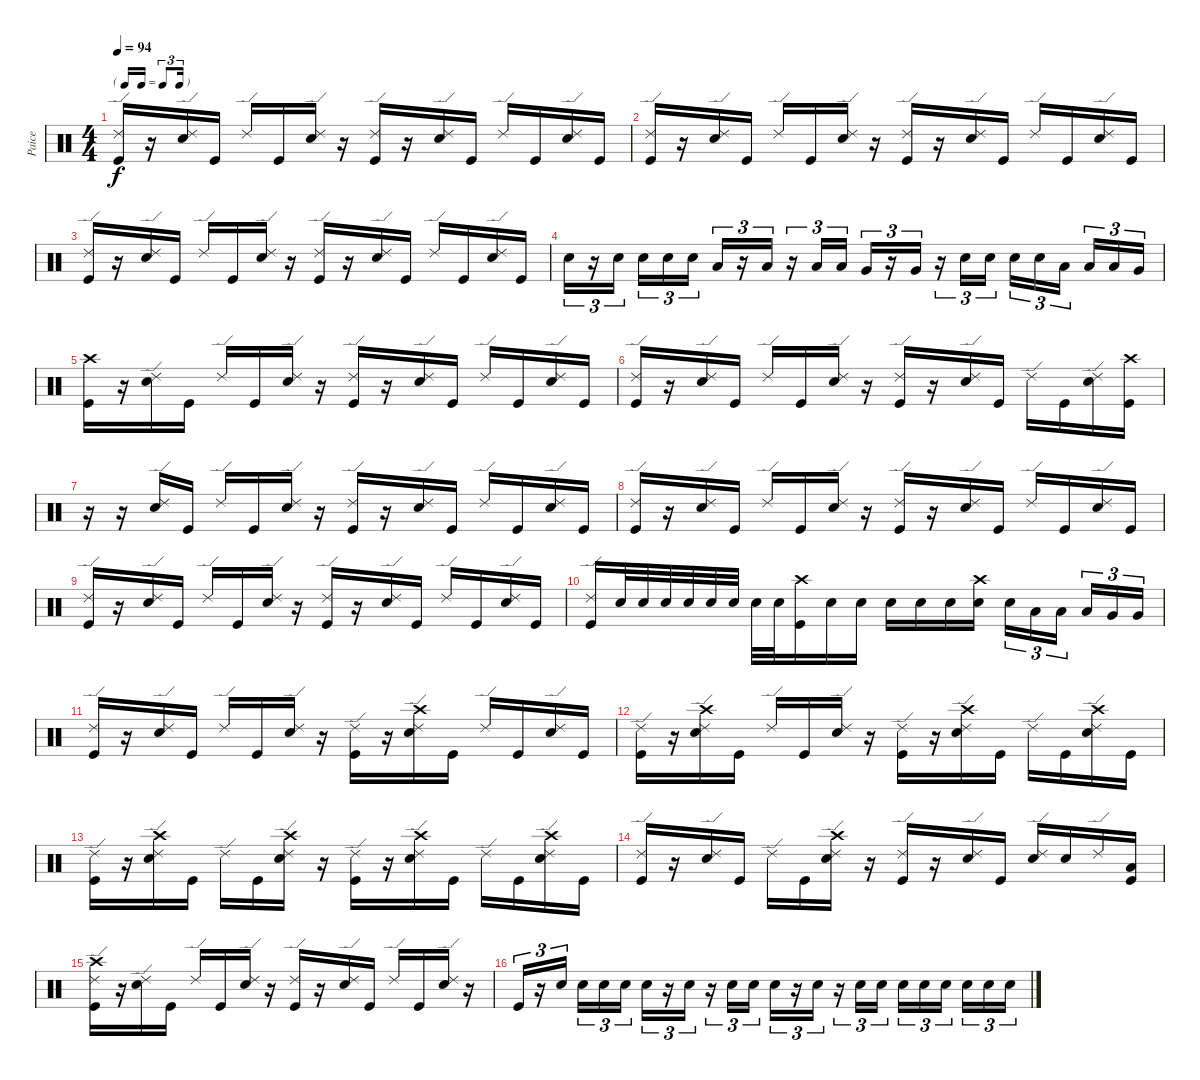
\track ("Paice" "Paice") {instrument percussion}
\staff {score}
\articulation defaults
\ts (4 4)
\tf triplet16th
\tempo 94
\clef neutral
\ks c
("Ride (edge) 2" "Kick (hit)").16{dy f} r.16 ("Ride (edge) 2" "Snare (hit) 2").16 "Kick (hit)".16 "Ride (edge) 2".16 "Kick (hit)".16 ("Ride (edge) 2" "Snare (hit) 2").16 r.16 ("Ride (edge) 2" "Kick (hit)").16 r.16 ("Ride (edge) 2" "Snare (hit) 2").16 "Kick (hit)".16 "Ride (edge) 2".16 "Kick (hit)".16 ("Ride (edge) 2" "Snare (hit) 2").16 "Kick (hit)".16 |
("Ride (edge) 2" "Kick (hit)").16 r.16 ("Ride (edge) 2" "Snare (hit) 2").16 "Kick (hit)".16 "Ride (edge) 2".16 "Kick (hit)".16 ("Ride (edge) 2" "Snare (hit) 2").16 r.16 ("Ride (edge) 2" "Kick (hit)").16 r.16 ("Ride (edge) 2" "Snare (hit) 2").16 "Kick (hit)".16 "Ride (edge) 2".16 "Kick (hit)".16 ("Ride (edge) 2" "Snare (hit) 2").16 "Kick (hit)".16 |
("Ride (edge) 2" "Kick (hit)").16 r.16 ("Ride (edge) 2" "Snare (hit) 2").16 "Kick (hit)".16 "Ride (edge) 2".16 "Kick (hit)".16 ("Ride (edge) 2" "Snare (hit) 2").16 r.16 ("Ride (edge) 2" "Kick (hit)").16 r.16 ("Ride (edge) 2" "Snare (hit) 2").16 "Kick (hit)".16 "Ride (edge) 2".16 "Kick (hit)".16 ("Ride (edge) 2" "Snare (hit) 2").16 "Kick (hit)".16 |
"Snare (hit) 2".16{tu (3 2)} r.16{tu (3 2)} "Snare (hit) 2".16{tu (3 2) beam splitsecondary} "Snare (hit) 2".16{tu (3 2)} "Snare (hit) 2".16{tu (3 2)} "Snare (hit) 2".16{tu (3 2)} "Low Tom (hit)".16{tu (3 2)} r.16{tu (3 2)} "Low Tom (hit)".16{tu (3 2)} r.16{tu (3 2)} "Low Tom (hit)".16{tu (3 2)} "Low Tom (hit)".16{tu (3 2)} "Very Low Tom (hit)".16{tu (3 2)} r.16{tu (3 2)} "Very Low Tom (hit)".16{tu (3 2)} r.16{tu (3 2)} "Snare (hit) 2".16{tu (3 2)} "Snare (hit) 2".16{tu (3 2)} "Snare (hit) 2".16{tu (3 2)} "Snare (hit) 2".16{tu (3 2)} "Low Tom (hit)".16{tu (3 2) beam splitsecondary} "Low Tom (hit)".16{tu (3 2)} "Low Tom (hit)".16{tu (3 2)} "Very Low Tom (hit)".16{tu (3 2)} |
("Crash high (hit)" "Kick (hit)").16 r.16 ("Ride (edge) 2" "Snare (hit) 2").16 "Kick (hit)".16 "Ride (edge) 2".16 "Kick (hit)".16 ("Ride (edge) 2" "Snare (hit) 2").16 r.16 ("Ride (edge) 2" "Kick (hit)").16 r.16 ("Ride (edge) 2" "Snare (hit) 2").16 "Kick (hit)".16 "Ride (edge) 2".16 "Kick (hit)".16 ("Ride (edge) 2" "Snare (hit) 2").16 "Kick (hit)".16 |
("Ride (edge) 2" "Kick (hit)").16 r.16 ("Ride (edge) 2" "Snare (hit) 2").16 "Kick (hit)".16 "Ride (edge) 2".16 "Kick (hit)".16 ("Ride (edge) 2" "Snare (hit) 2").16 r.16 ("Ride (edge) 2" "Kick (hit)").16 r.16 ("Ride (edge) 2" "Snare (hit) 2").16 "Kick (hit)".16 "Ride (edge) 2".16 "Kick (hit)".16 ("Ride (edge) 2" "Snare (hit) 2").16 ("Crash high (hit)" "Kick (hit)").16 |
r.16 r.16 ("Ride (edge) 2" "Snare (hit) 2").16 "Kick (hit)".16 "Ride (edge) 2".16 "Kick (hit)".16 ("Ride (edge) 2" "Snare (hit) 2").16 r.16 ("Ride (edge) 2" "Kick (hit)").16 r.16 ("Ride (edge) 2" "Snare (hit) 2").16 "Kick (hit)".16 "Ride (edge) 2".16 "Kick (hit)".16 ("Ride (edge) 2" "Snare (hit) 2").16 "Kick (hit)".16 |
("Ride (edge) 2" "Kick (hit)").16 r.16 ("Ride (edge) 2" "Snare (hit) 2").16 "Kick (hit)".16 "Ride (edge) 2".16 "Kick (hit)".16 ("Ride (edge) 2" "Snare (hit) 2").16 r.16 ("Ride (edge) 2" "Kick (hit)").16 r.16 ("Ride (edge) 2" "Snare (hit) 2").16 "Kick (hit)".16 "Ride (edge) 2".16 "Kick (hit)".16 ("Ride (edge) 2" "Snare (hit) 2").16 "Kick (hit)".16 |
("Ride (edge) 2" "Kick (hit)").16 r.16 ("Ride (edge) 2" "Snare (hit) 2").16 "Kick (hit)".16 "Ride (edge) 2".16 "Kick (hit)".16 ("Ride (edge) 2" "Snare (hit) 2").16 r.16 ("Ride (edge) 2" "Kick (hit)").16 r.16 ("Ride (edge) 2" "Snare (hit) 2").16 "Kick (hit)".16 "Ride (edge) 2".16 "Kick (hit)".16 ("Ride (edge) 2" "Snare (hit) 2").16 "Kick (hit)".16 |
("Ride (edge) 2" "Kick (hit)").16 "Snare (hit) 2".32 "Snare (hit) 2".32 "Snare (hit) 2".32 "Snare (hit) 2".32 "Snare (hit) 2".32 "Snare (hit) 2".32 "Snare (hit) 2".32 "Snare (hit) 2".32 ("Crash high (hit)" "Kick (hit)").16 "Snare (hit) 2".16 "Snare (hit) 2".16 "Snare (hit) 2".16 "Snare (hit) 2".16 "Snare (hit) 2".16 ("Crash high (hit)" "Snare (hit) 2").16 "Snare (hit) 2".16{tu (3 2)} "Low Tom (hit)".16{tu (3 2)} "Low Tom (hit)".16{tu (3 2) beam splitsecondary} "Low Tom (hit)".16{tu (3 2)} "Very Low Tom (hit)".16{tu (3 2)} "Very Low Tom (hit)".16{tu (3 2)} |
("Ride (edge) 2" "Kick (hit)").16 r.16 ("Ride (edge) 2" "Snare (hit) 2").16 "Kick (hit)".16 "Ride (edge) 2".16 "Kick (hit)".16 ("Ride (edge) 2" "Snare (hit) 2").16 r.16 ("Ride (edge) 2" "Kick (hit)").16 r.16 ("Crash high (hit)" "Ride (edge) 2" "Snare (hit) 2").16 "Kick (hit)".16 "Ride (edge) 2".16 "Kick (hit)".16 ("Ride (edge) 2" "Snare (hit) 2").16 "Kick (hit)".16 |
("Ride (edge) 2" "Kick (hit)").16 r.16 ("Crash high (hit)" "Ride (edge) 2" "Snare (hit) 2").16 "Kick (hit)".16 "Ride (edge) 2".16 "Kick (hit)".16 ("Ride (edge) 2" "Snare (hit) 2").16 r.16 ("Ride (edge) 2" "Kick (hit)").16 r.16 ("Crash high (hit)" "Ride (edge) 2" "Snare (hit) 2").16 "Kick (hit)".16 "Ride (edge) 2".16 "Kick (hit)".16 ("Crash high (hit)" "Ride (edge) 2" "Snare (hit) 2").16 "Kick (hit)".16 |
("Ride (edge) 2" "Kick (hit)").16 r.16 ("Crash high (hit)" "Ride (edge) 2" "Snare (hit) 2").16 "Kick (hit)".16 "Ride (edge) 2".16 "Kick (hit)".16 ("Crash high (hit)" "Ride (edge) 2" "Snare (hit) 2").16 r.16 ("Ride (edge) 2" "Kick (hit)").16 r.16 ("Crash high (hit)" "Ride (edge) 2" "Snare (hit) 2").16 "Kick (hit)".16 "Ride (edge) 2".16 "Kick (hit)".16 ("Crash high (hit)" "Ride (edge) 2" "Snare (hit) 2").16 "Kick (hit)".16 |
("Ride (edge) 2" "Kick (hit)").16 r.16 ("Ride (edge) 2" "Snare (hit) 2").16 "Kick (hit)".16 "Ride (edge) 2".16 "Kick (hit)".16 ("Crash high (hit)" "Ride (edge) 2" "Snare (hit) 2").16 r.16 ("Ride (edge) 2" "Kick (hit)").16 r.16 ("Ride (edge) 2" "Snare (hit) 2").16 "Kick (hit)".16 ("Ride (edge) 2" "Snare (hit) 2").16 "Snare (hit) 2".16 "Ride (edge) 2".16 ("Low Floor Tom (hit)" "Kick (hit)").16 |
("Crash high (hit)" "Ride (edge) 2" "Kick (hit)").16 r.16 ("Ride (edge) 2" "Snare (hit) 2").16 "Kick (hit)".16 "Ride (edge) 2".16 "Kick (hit)".16 ("Ride (edge) 2" "Snare (hit) 2").16 r.16 ("Ride (edge) 2" "Kick (hit)").16 r.16 ("Ride (edge) 2" "Snare (hit) 2").16 "Kick (hit)".16 "Ride (edge) 2".16 "Kick (hit)".16 ("Ride (edge) 2" "Snare (hit) 2").16 r.16 |
"Kick (hit)".16{tu (3 2)} r.16{tu (3 2)} "Snare (hit) 2".16{tu (3 2) beam splitsecondary} "Snare (hit) 2".16{tu (3 2)} "Snare (hit) 2".16{tu (3 2)} "Snare (hit) 2".16{tu (3 2)} "Snare (hit) 2".16{tu (3 2)} r.16{tu (3 2)} "Snare (hit) 2".16{tu (3 2)} r.16{tu (3 2)} "Snare (hit) 2".16{tu (3 2)} "Snare (hit) 2".16{tu (3 2)} "Snare (hit) 2".16{tu (3 2)} r.16{tu (3 2)} "Snare (hit) 2".16{tu (3 2)} r.16{tu (3 2)} "Snare (hit) 2".16{tu (3 2)} "Snare (hit) 2".16{tu (3 2)} "Snare (hit) 2".16{tu (3 2)} "Snare (hit) 2".16{tu (3 2)} "Snare (hit) 2".16{tu (3 2) beam splitsecondary} "Snare (hit) 2".16{tu (3 2)} "Snare (hit) 2".16{tu (3 2)} "Snare (hit) 2".16{tu (3 2)}
